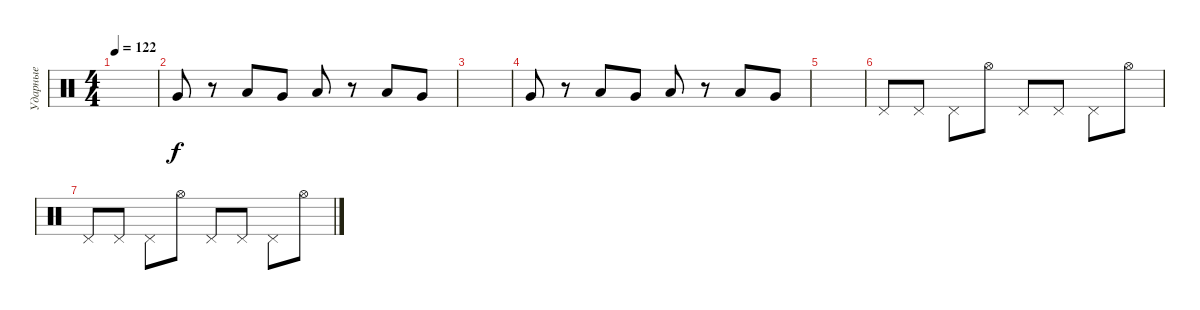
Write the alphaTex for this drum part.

\track ("Ударные" "Ударные") {instrument percussion}
\staff {score}
\articulation defaults
\ts (4 4)
\tempo 122
\clef neutral
\ks c
|
"Very Low Tom (hit)".8 r.8 "Low Floor Tom (hit)".8 "Very Low Tom (hit)".8 "Low Floor Tom (hit)".8 r.8 "Low Floor Tom (hit)".8 "Very Low Tom (hit)".8 |
|
"Very Low Tom (hit)".8 r.8 "Low Floor Tom (hit)".8 "Very Low Tom (hit)".8 "Low Floor Tom (hit)".8 r.8 "Low Floor Tom (hit)".8 "Very Low Tom (hit)".8 |
|
"Pedal Hi-Hat (hit)".8 "Pedal Hi-Hat (hit)".8 "Pedal Hi-Hat (hit)".8 "Hi-Hat (open)".8 "Pedal Hi-Hat (hit)".8 "Pedal Hi-Hat (hit)".8 "Pedal Hi-Hat (hit)".8 "Hi-Hat (open)".8 |
"Pedal Hi-Hat (hit)".8 "Pedal Hi-Hat (hit)".8 "Pedal Hi-Hat (hit)".8 "Hi-Hat (open)".8 "Pedal Hi-Hat (hit)".8 "Pedal Hi-Hat (hit)".8 "Pedal Hi-Hat (hit)".8 "Hi-Hat (open)".8
